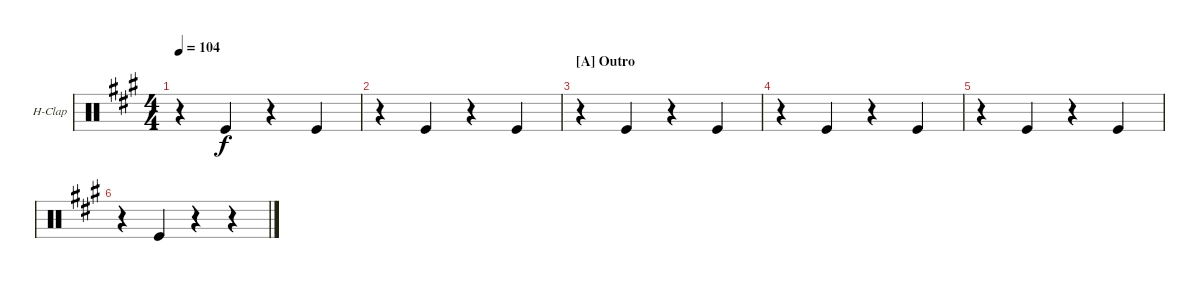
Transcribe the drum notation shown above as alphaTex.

\defaultSystemsLayout 4
\bracketExtendMode groupsimilarinstruments
\firstSystemTrackNameOrientation horizontal
\otherSystemsTrackNameOrientation horizontal
\track ("Hand Clap" "H-Clap") {instrument percussion}
\staff {score}
\articulation defaults
\ts (4 4)
\tempo 104
\clef neutral
\ks a
r.4{dy f} "Kick (hit)".4 r.4 "Kick (hit)".4 |
r.4 "Kick (hit)".4 r.4 "Kick (hit)".4 |
\section ("A" "Outro")
r.4 "Kick (hit)".4 r.4 "Kick (hit)".4 |
r.4 "Kick (hit)".4 r.4 "Kick (hit)".4 |
r.4 "Kick (hit)".4 r.4 "Kick (hit)".4 |
r.4 "Kick (hit)".4 r.4 r.4 |
\scale
0.333333
